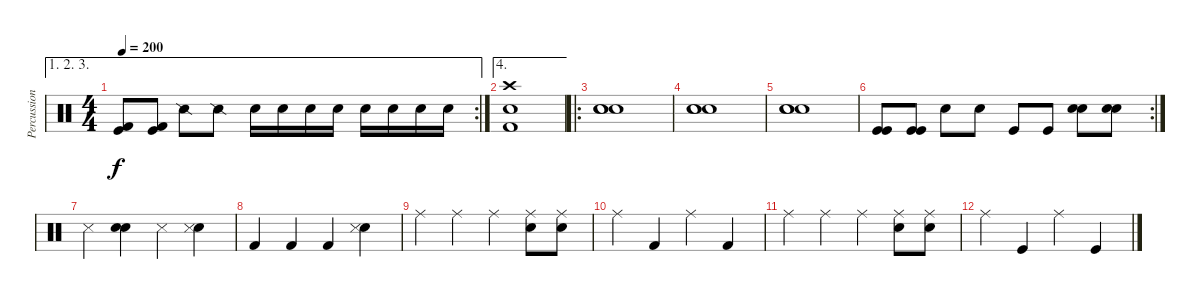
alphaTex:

\track ("Percussions" "Percussion") {instrument percussion}
\staff {score}
\articulation defaults
\ae (1 2 3)
\rc 2
\ts (4 4)
\tempo 200
\clef neutral
\ks c
("Kick (hit)" "Kick (hit) 2").8{dy f} ("Kick (hit)" "Kick (hit) 2").8 "Snare (side stick) 2".8 "Snare (side stick) 2".8 "Snare (hit) 2".16 "Snare (hit) 2".16 "Snare (hit) 2".16 "Snare (hit) 2".16 "Snare (hit) 2".16 "Snare (hit) 2".16 "Snare (hit) 2".16 "Snare (hit) 2".16 |
\ae 4
("Snare (hit) 2" "Kick (hit) 2" "Crash high (hit)").1 |
\ro
("Snare (hit) 2" "Snare (hit)" "Snare (hit) 2").1 |
("Snare (hit) 2" "Snare (hit)" "Snare (hit) 2").1 |
("Snare (hit) 2" "Snare (hit)" "Snare (hit) 2").1 |
\rc 2
("Kick (hit)" "Kick (hit)").8 ("Kick (hit)" "Kick (hit)").8 "Snare (hit) 2".8 "Snare (hit) 2".8 "Kick (hit)".8 "Kick (hit)".8 ("Snare (hit) 2" "Snare (hit) 2").8 ("Snare (hit) 2" "Snare (hit) 2").8 |
"Snare (side stick) 3".4 ("Snare (hit) 2" "Snare (hit) 2").4 "Snare (side stick) 3".4 ("Snare (hit) 2" "Snare (side stick) 3").4 |
"Kick (hit) 2".4 "Kick (hit) 2".4 "Kick (hit) 2".4 ("Snare (hit) 2" "Snare (side stick) 3").4 |
"Ride (middle)".4 "Ride (middle)".4 "Ride (middle)".4 ("Snare (hit) 2" "Ride (middle)").8 ("Snare (hit) 2" "Ride (middle)").8 |
"Ride (middle)".4 "Kick (hit) 2".4 "Ride (middle)".4 "Kick (hit) 2".4 |
"Ride (middle)".4 "Ride (middle)".4 "Ride (middle)".4 ("Snare (hit) 2" "Ride (middle)").8 ("Snare (hit) 2" "Ride (middle)").8 |
"Ride (middle)".4 "Kick (hit)".4 "Ride (middle)".4 "Kick (hit)".4
